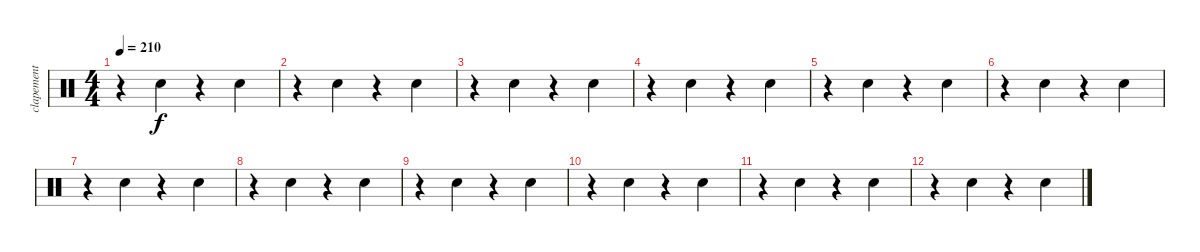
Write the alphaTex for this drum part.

\track ("clapement de main( The Adicts ) " "clapement ") {instrument percussion}
\staff {score}
\articulation defaults
\ts (4 4)
\tempo 210
\clef neutral
\ks c
r.4{dy f} "Hand Clap (hit)".4 r.4 "Hand Clap (hit)".4 |
r.4 "Hand Clap (hit)".4 r.4 "Hand Clap (hit)".4 |
r.4 "Hand Clap (hit)".4 r.4 "Hand Clap (hit)".4 |
r.4 "Hand Clap (hit)".4 r.4 "Hand Clap (hit)".4 |
r.4 "Hand Clap (hit)".4 r.4 "Hand Clap (hit)".4 |
r.4 "Hand Clap (hit)".4 r.4 "Hand Clap (hit)".4 |
r.4 "Hand Clap (hit)".4 r.4 "Hand Clap (hit)".4 |
r.4 "Hand Clap (hit)".4 r.4 "Hand Clap (hit)".4 |
r.4 "Hand Clap (hit)".4 r.4 "Hand Clap (hit)".4 |
r.4 "Hand Clap (hit)".4 r.4 "Hand Clap (hit)".4 |
r.4 "Hand Clap (hit)".4 r.4 "Hand Clap (hit)".4 |
r.4 "Hand Clap (hit)".4 r.4 "Hand Clap (hit)".4
